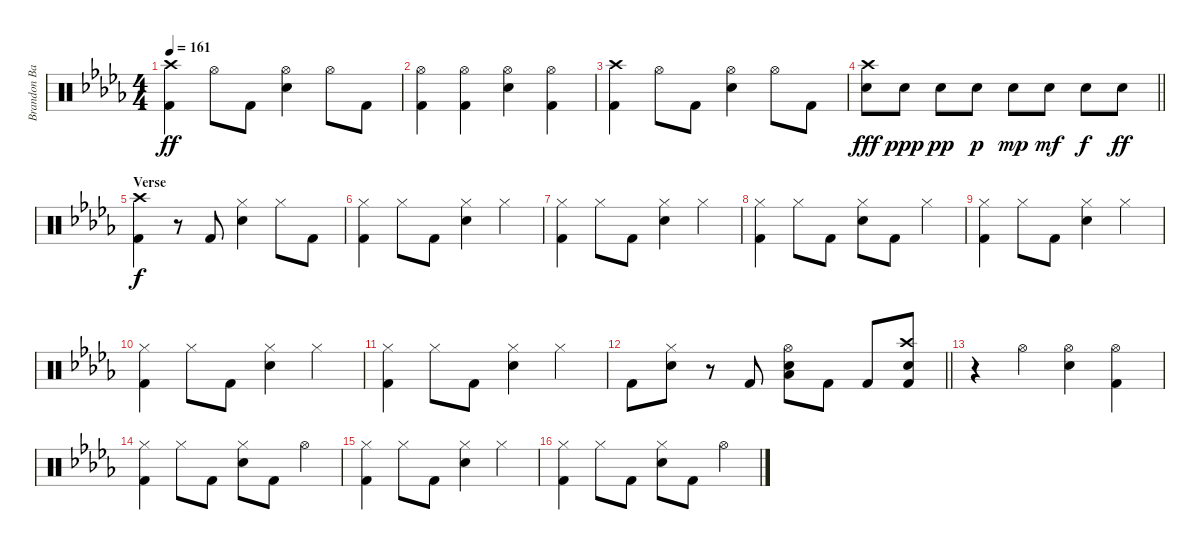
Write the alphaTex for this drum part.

\track ("Brandon Barnes - Drums" "Brandon Ba") {instrument percussion}
\staff {score}
\articulation defaults
\ts (4 4)
\tempo 161
\clef neutral
\ks db
("Kick (hit) 2" "Crash high (hit)").4{dy ff} "Hi-Hat (open)".8 "Kick (hit) 2".8 ("Snare (hit) 2" "Hi-Hat (open)").4 "Hi-Hat (open)".8 "Kick (hit) 2".8 |
("Kick (hit) 2" "Hi-Hat (open)").4 ("Kick (hit) 2" "Hi-Hat (open)").4 ("Snare (hit) 2" "Hi-Hat (open)").4 ("Kick (hit) 2" "Hi-Hat (open)").4 |
("Kick (hit) 2" "Crash high (hit)").4 "Hi-Hat (open)".8 "Kick (hit) 2".8 ("Snare (hit) 2" "Hi-Hat (open)").4 "Hi-Hat (open)".8 "Kick (hit) 2".8 |
\barLineRight lightlight
("Snare (hit) 2" "Crash high (hit)").8{dy fff} "Snare (hit) 2".8{dy ppp} "Snare (hit) 2".8{dy pp} "Snare (hit) 2".8{dy p} "Snare (hit) 2".8{dy mp} "Snare (hit) 2".8{dy mf} "Snare (hit) 2".8{dy f} "Snare (hit) 2".8{dy ff} |
\section ("" "Verse")
("Crash high (hit)" "Kick (hit) 2").4{dy f} r.8 "Kick (hit) 2".8 ("Snare (hit) 2" "Hi-Hat (closed)").4 "Hi-Hat (closed)".8 "Kick (hit) 2".8 |
("Hi-Hat (closed)" "Kick (hit) 2").4 "Hi-Hat (closed)".8 "Kick (hit) 2".8 ("Snare (hit) 2" "Hi-Hat (closed)").4 "Hi-Hat (closed)".4 |
("Hi-Hat (closed)" "Kick (hit) 2").4 "Hi-Hat (closed)".8 "Kick (hit) 2".8 ("Snare (hit) 2" "Hi-Hat (closed)").4 "Hi-Hat (closed)".4 |
("Hi-Hat (closed)" "Kick (hit) 2").4 "Hi-Hat (closed)".8 "Kick (hit) 2".8 ("Snare (hit) 2" "Hi-Hat (closed)").8 "Kick (hit) 2".8 "Hi-Hat (closed)".4 |
("Hi-Hat (closed)" "Kick (hit) 2").4 "Hi-Hat (closed)".8 "Kick (hit) 2".8 ("Snare (hit) 2" "Hi-Hat (closed)").4 "Hi-Hat (closed)".4 |
("Hi-Hat (closed)" "Kick (hit) 2").4 "Hi-Hat (closed)".8 "Kick (hit) 2".8 ("Snare (hit) 2" "Hi-Hat (closed)").4 "Hi-Hat (closed)".4 |
("Hi-Hat (closed)" "Kick (hit) 2").4 "Hi-Hat (closed)".8 "Kick (hit) 2".8 ("Snare (hit) 2" "Hi-Hat (closed)").4 "Hi-Hat (closed)".4 |
\barLineRight lightlight "Kick (hit) 2".8
("Snare (hit) 2" "Hi-Hat (closed)").8 r.8 "Kick (hit) 2".8 ("Snare (hit) 2" "Low Tom (hit)" "Hi-Hat (open)").8 "Kick (hit) 2".8 "Kick (hit) 2".8 ("Kick (hit) 2" "Snare (hit) 2" "Crash high (hit)").8 |
r.4 "Hi-Hat (open)".4 ("Snare (hit) 2" "Hi-Hat (open)").4 ("Kick (hit) 2" "Hi-Hat (open)").4 |
("Hi-Hat (closed)" "Kick (hit) 2").4 "Hi-Hat (closed)".8 "Kick (hit) 2".8 ("Snare (hit) 2" "Hi-Hat (closed)").8 "Kick (hit) 2".8 "Hi-Hat (open)".4 |
("Hi-Hat (closed)" "Kick (hit) 2").4 "Hi-Hat (closed)".8 "Kick (hit) 2".8 ("Snare (hit) 2" "Hi-Hat (closed)").4 "Hi-Hat (closed)".4 |
("Hi-Hat (closed)" "Kick (hit) 2").4 "Hi-Hat (closed)".8 "Kick (hit) 2".8 ("Snare (hit) 2" "Hi-Hat (closed)").8 "Kick (hit) 2".8 "Hi-Hat (open)".4
